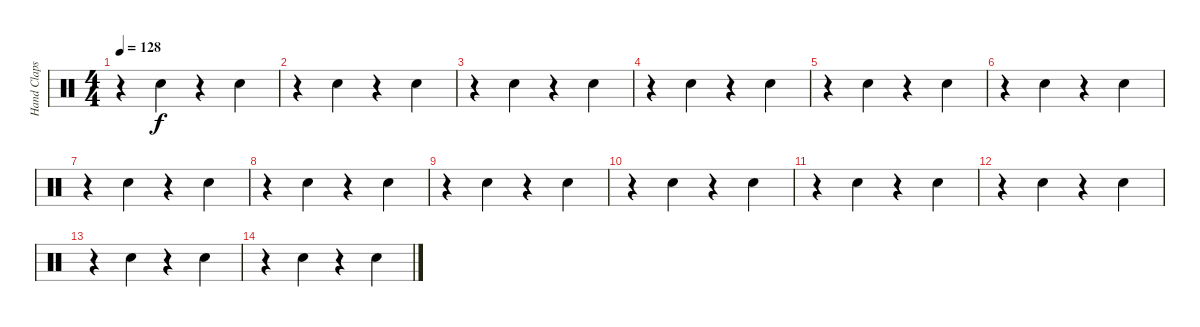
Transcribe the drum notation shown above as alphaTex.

\track ("Hand Claps" "Hand Claps") {instrument percussion}
\staff {score}
\articulation defaults
\ts (4 4)
\tempo 128
\clef neutral
\ks c
r.4{dy f} "Hand Clap (hit)".4 r.4 "Hand Clap (hit)".4 |
r.4 "Hand Clap (hit)".4 r.4 "Hand Clap (hit)".4 |
r.4 "Hand Clap (hit)".4 r.4 "Hand Clap (hit)".4 |
r.4 "Hand Clap (hit)".4 r.4 "Hand Clap (hit)".4 |
r.4 "Hand Clap (hit)".4 r.4 "Hand Clap (hit)".4 |
r.4 "Hand Clap (hit)".4 r.4 "Hand Clap (hit)".4 |
r.4 "Hand Clap (hit)".4 r.4 "Hand Clap (hit)".4 |
r.4 "Hand Clap (hit)".4 r.4 "Hand Clap (hit)".4 |
r.4 "Hand Clap (hit)".4 r.4 "Hand Clap (hit)".4 |
r.4 "Hand Clap (hit)".4 r.4 "Hand Clap (hit)".4 |
r.4 "Hand Clap (hit)".4 r.4 "Hand Clap (hit)".4 |
r.4 "Hand Clap (hit)".4 r.4 "Hand Clap (hit)".4 |
r.4 "Hand Clap (hit)".4 r.4 "Hand Clap (hit)".4 |
r.4 "Hand Clap (hit)".4 r.4 "Hand Clap (hit)".4
